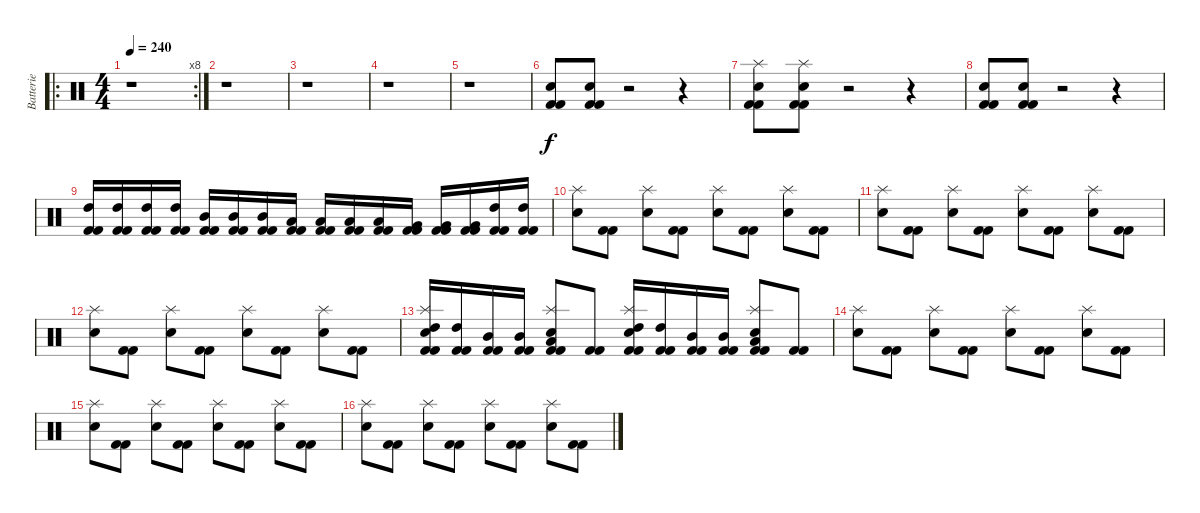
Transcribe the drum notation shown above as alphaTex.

\track ("Batterie" "Batterie") {instrument percussion}
\staff {score}
\articulation defaults
\ro
\rc 8
\ts (4 4)
\tempo 240
\clef neutral
\ks c
r.1{dy f} |
r.1 |
r.1 |
r.1 |
r.1 |
("Snare (hit) 2" "Kick (hit) 2" "Kick (hit) 2").8 ("Snare (hit) 2" "Kick (hit) 2" "Kick (hit) 2").8 r.2 r.4 |
("Splash (hit)" "Snare (hit) 2" "Kick (hit) 2" "Kick (hit) 2").8 ("Splash (hit)" "Snare (hit) 2" "Kick (hit) 2" "Kick (hit) 2").8 r.2 r.4 |
("Snare (hit) 2" "Kick (hit) 2" "Kick (hit) 2").8 ("Snare (hit) 2" "Kick (hit) 2" "Kick (hit) 2").8 r.2 r.4 |
("High Tom (hit)" "Kick (hit) 2" "Kick (hit) 2").16 ("High Tom (hit)" "Kick (hit) 2" "Kick (hit) 2").16 ("High Tom (hit)" "Kick (hit) 2" "Kick (hit) 2").16 ("High Tom (hit)" "Kick (hit) 2" "Kick (hit) 2").16 ("Mid Tom (hit)" "Kick (hit) 2" "Kick (hit) 2").16 ("Mid Tom (hit)" "Kick (hit) 2" "Kick (hit) 2").16 ("Mid Tom (hit)" "Kick (hit) 2" "Kick (hit) 2").16 ("Low Tom (hit)" "Kick (hit) 2" "Kick (hit) 2").16 ("Low Tom (hit)" "Kick (hit) 2" "Kick (hit) 2").16 ("Low Tom (hit)" "Kick (hit) 2" "Kick (hit) 2").16 ("Low Tom (hit)" "Kick (hit) 2" "Kick (hit) 2").16 ("Very Low Tom (hit)" "Kick (hit) 2" "Kick (hit) 2").16 ("Very Low Tom (hit)" "Kick (hit) 2" "Kick (hit) 2").16 ("Very Low Tom (hit)" "Kick (hit) 2" "Kick (hit) 2").16 ("High Tom (hit)" "Kick (hit) 2" "Kick (hit) 2").16 ("High Tom (hit)" "Kick (hit) 2" "Kick (hit) 2").16 |
("Splash (hit)" "Snare (hit) 2").8 ("Kick (hit) 2" "Kick (hit) 2").8 ("Splash (hit)" "Snare (hit) 2").8 ("Kick (hit) 2" "Kick (hit) 2").8 ("Splash (hit)" "Snare (hit) 2").8 ("Kick (hit) 2" "Kick (hit) 2").8 ("Splash (hit)" "Snare (hit) 2").8 ("Kick (hit) 2" "Kick (hit) 2").8 |
("Splash (hit)" "Snare (hit) 2").8 ("Kick (hit) 2" "Kick (hit) 2").8 ("Splash (hit)" "Snare (hit) 2").8 ("Kick (hit) 2" "Kick (hit) 2").8 ("Splash (hit)" "Snare (hit) 2").8 ("Kick (hit) 2" "Kick (hit) 2").8 ("Splash (hit)" "Snare (hit) 2").8 ("Kick (hit) 2" "Kick (hit) 2").8 |
("Splash (hit)" "Snare (hit) 2").8 ("Kick (hit) 2" "Kick (hit) 2").8 ("Splash (hit)" "Snare (hit) 2").8 ("Kick (hit) 2" "Kick (hit) 2").8 ("Splash (hit)" "Snare (hit) 2").8 ("Kick (hit) 2" "Kick (hit) 2").8 ("Splash (hit)" "Snare (hit) 2").8 ("Kick (hit) 2" "Kick (hit) 2").8 |
("Splash (hit)" "Snare (hit) 2" "High Tom (hit)" "Kick (hit) 2" "Kick (hit) 2").16 ("High Tom (hit)" "Kick (hit) 2" "Kick (hit) 2").16 ("Mid Tom (hit)" "Kick (hit) 2" "Kick (hit) 2").16 ("Mid Tom (hit)" "Kick (hit) 2" "Kick (hit) 2").16 ("Splash (hit)" "Snare (hit) 2" "Low Tom (hit)" "Kick (hit) 2" "Kick (hit) 2").8 ("Kick (hit) 2" "Kick (hit) 2").8 ("Splash (hit)" "Snare (hit) 2" "High Tom (hit)" "Kick (hit) 2" "Kick (hit) 2").16 ("High Tom (hit)" "Kick (hit) 2" "Kick (hit) 2").16 ("Mid Tom (hit)" "Kick (hit) 2" "Kick (hit) 2").16 ("Mid Tom (hit)" "Kick (hit) 2" "Kick (hit) 2").16 ("Splash (hit)" "Snare (hit) 2" "Low Tom (hit)" "Kick (hit) 2" "Kick (hit) 2").8 ("Kick (hit) 2" "Kick (hit) 2").8 |
("Splash (hit)" "Snare (hit) 2").8 ("Kick (hit) 2" "Kick (hit) 2").8 ("Splash (hit)" "Snare (hit) 2").8 ("Kick (hit) 2" "Kick (hit) 2").8 ("Splash (hit)" "Snare (hit) 2").8 ("Kick (hit) 2" "Kick (hit) 2").8 ("Splash (hit)" "Snare (hit) 2").8 ("Kick (hit) 2" "Kick (hit) 2").8 |
("Splash (hit)" "Snare (hit) 2").8 ("Kick (hit) 2" "Kick (hit) 2").8 ("Splash (hit)" "Snare (hit) 2").8 ("Kick (hit) 2" "Kick (hit) 2").8 ("Splash (hit)" "Snare (hit) 2").8 ("Kick (hit) 2" "Kick (hit) 2").8 ("Splash (hit)" "Snare (hit) 2").8 ("Kick (hit) 2" "Kick (hit) 2").8 |
("Splash (hit)" "Snare (hit) 2").8 ("Kick (hit) 2" "Kick (hit) 2").8 ("Splash (hit)" "Snare (hit) 2").8 ("Kick (hit) 2" "Kick (hit) 2").8 ("Splash (hit)" "Snare (hit) 2").8 ("Kick (hit) 2" "Kick (hit) 2").8 ("Splash (hit)" "Snare (hit) 2").8 ("Kick (hit) 2" "Kick (hit) 2").8
